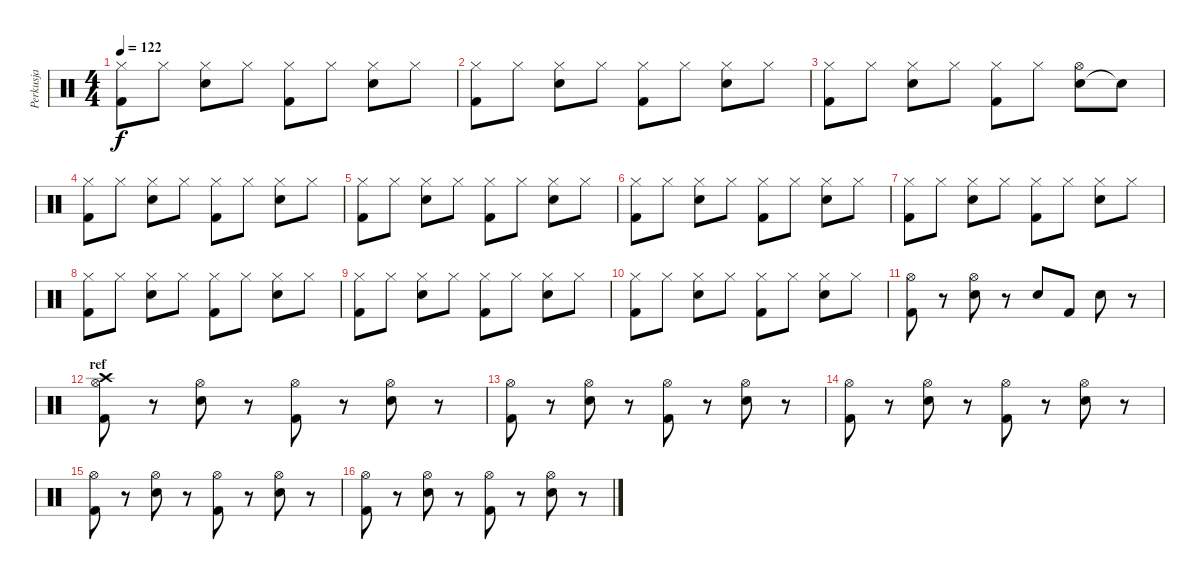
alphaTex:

\track ("Perkusja" "Perkusja") {instrument percussion}
\staff {score}
\articulation defaults
\ts (4 4)
\tempo 122
\clef neutral
\ks c
("Kick (hit) 2" "Hi-Hat (closed)").8{dy f} "Hi-Hat (closed)".8 ("Snare (hit) 2" "Hi-Hat (closed)").8 "Hi-Hat (closed)".8 ("Kick (hit) 2" "Hi-Hat (closed)").8 "Hi-Hat (closed)".8 ("Snare (hit) 2" "Hi-Hat (closed)").8 "Hi-Hat (closed)".8 |
("Kick (hit) 2" "Hi-Hat (closed)").8 "Hi-Hat (closed)".8 ("Snare (hit) 2" "Hi-Hat (closed)").8 "Hi-Hat (closed)".8 ("Kick (hit) 2" "Hi-Hat (closed)").8 "Hi-Hat (closed)".8 ("Snare (hit) 2" "Hi-Hat (closed)").8 "Hi-Hat (closed)".8 |
("Kick (hit) 2" "Hi-Hat (closed)").8 "Hi-Hat (closed)".8 ("Snare (hit) 2" "Hi-Hat (closed)").8 "Hi-Hat (closed)".8 ("Kick (hit) 2" "Hi-Hat (closed)").8 "Hi-Hat (closed)".8 ("Snare (hit) 2" "Hi-Hat (open)").8 "Snare (hit)"{t}.8 |
("Kick (hit) 2" "Hi-Hat (closed)").8 "Hi-Hat (closed)".8 ("Snare (hit) 2" "Hi-Hat (closed)").8 "Hi-Hat (closed)".8 ("Kick (hit) 2" "Hi-Hat (closed)").8 "Hi-Hat (closed)".8 ("Snare (hit) 2" "Hi-Hat (closed)").8 "Hi-Hat (closed)".8 |
("Kick (hit) 2" "Hi-Hat (closed)").8 "Hi-Hat (closed)".8 ("Snare (hit) 2" "Hi-Hat (closed)").8 "Hi-Hat (closed)".8 ("Kick (hit) 2" "Hi-Hat (closed)").8 "Hi-Hat (closed)".8 ("Snare (hit) 2" "Hi-Hat (closed)").8 "Hi-Hat (closed)".8 |
("Kick (hit) 2" "Hi-Hat (closed)").8 "Hi-Hat (closed)".8 ("Snare (hit) 2" "Hi-Hat (closed)").8 "Hi-Hat (closed)".8 ("Kick (hit) 2" "Hi-Hat (closed)").8 "Hi-Hat (closed)".8 ("Snare (hit) 2" "Hi-Hat (closed)").8 "Hi-Hat (closed)".8 |
("Kick (hit) 2" "Hi-Hat (closed)").8 "Hi-Hat (closed)".8 ("Snare (hit) 2" "Hi-Hat (closed)").8 "Hi-Hat (closed)".8 ("Kick (hit) 2" "Hi-Hat (closed)").8 "Hi-Hat (closed)".8 ("Snare (hit) 2" "Hi-Hat (closed)").8 "Hi-Hat (closed)".8 |
("Kick (hit) 2" "Hi-Hat (closed)").8 "Hi-Hat (closed)".8 ("Snare (hit) 2" "Hi-Hat (closed)").8 "Hi-Hat (closed)".8 ("Kick (hit) 2" "Hi-Hat (closed)").8 "Hi-Hat (closed)".8 ("Snare (hit) 2" "Hi-Hat (closed)").8 "Hi-Hat (closed)".8 |
("Kick (hit) 2" "Hi-Hat (closed)").8 "Hi-Hat (closed)".8 ("Snare (hit) 2" "Hi-Hat (closed)").8 "Hi-Hat (closed)".8 ("Kick (hit) 2" "Hi-Hat (closed)").8 "Hi-Hat (closed)".8 ("Snare (hit) 2" "Hi-Hat (closed)").8 "Hi-Hat (closed)".8 |
("Kick (hit) 2" "Hi-Hat (closed)").8 "Hi-Hat (closed)".8 ("Snare (hit) 2" "Hi-Hat (closed)").8 "Hi-Hat (closed)".8 ("Kick (hit) 2" "Hi-Hat (closed)").8 "Hi-Hat (closed)".8 ("Snare (hit) 2" "Hi-Hat (closed)").8 "Hi-Hat (closed)".8 |
("Kick (hit) 2" "Hi-Hat (open)").8 r.8 ("Snare (hit) 2" "Hi-Hat (open)").8 r.8 "Snare (hit) 2".8 "Kick (hit) 2".8 "Snare (hit) 2".8 r.8 |
\section ("" "ref")
("Kick (hit) 2" "Hi-Hat (open)" "Crash high (hit)").8 r.8 ("Snare (hit) 2" "Hi-Hat (open)").8 r.8 ("Kick (hit) 2" "Hi-Hat (open)").8 r.8 ("Snare (hit) 2" "Hi-Hat (open)").8 r.8 |
("Kick (hit) 2" "Hi-Hat (open)").8 r.8 ("Snare (hit) 2" "Hi-Hat (open)").8 r.8 ("Kick (hit) 2" "Hi-Hat (open)").8 r.8 ("Snare (hit) 2" "Hi-Hat (open)").8 r.8 |
("Kick (hit) 2" "Hi-Hat (open)").8 r.8 ("Snare (hit) 2" "Hi-Hat (open)").8 r.8 ("Kick (hit) 2" "Hi-Hat (open)").8 r.8 ("Snare (hit) 2" "Hi-Hat (open)").8 r.8 |
("Kick (hit) 2" "Hi-Hat (open)").8 r.8 ("Snare (hit) 2" "Hi-Hat (open)").8 r.8 ("Kick (hit) 2" "Hi-Hat (open)").8 r.8 ("Snare (hit) 2" "Hi-Hat (open)").8 r.8 |
("Kick (hit) 2" "Hi-Hat (open)").8 r.8 ("Snare (hit) 2" "Hi-Hat (open)").8 r.8 ("Kick (hit) 2" "Hi-Hat (open)").8 r.8 ("Snare (hit) 2" "Hi-Hat (open)").8 r.8
